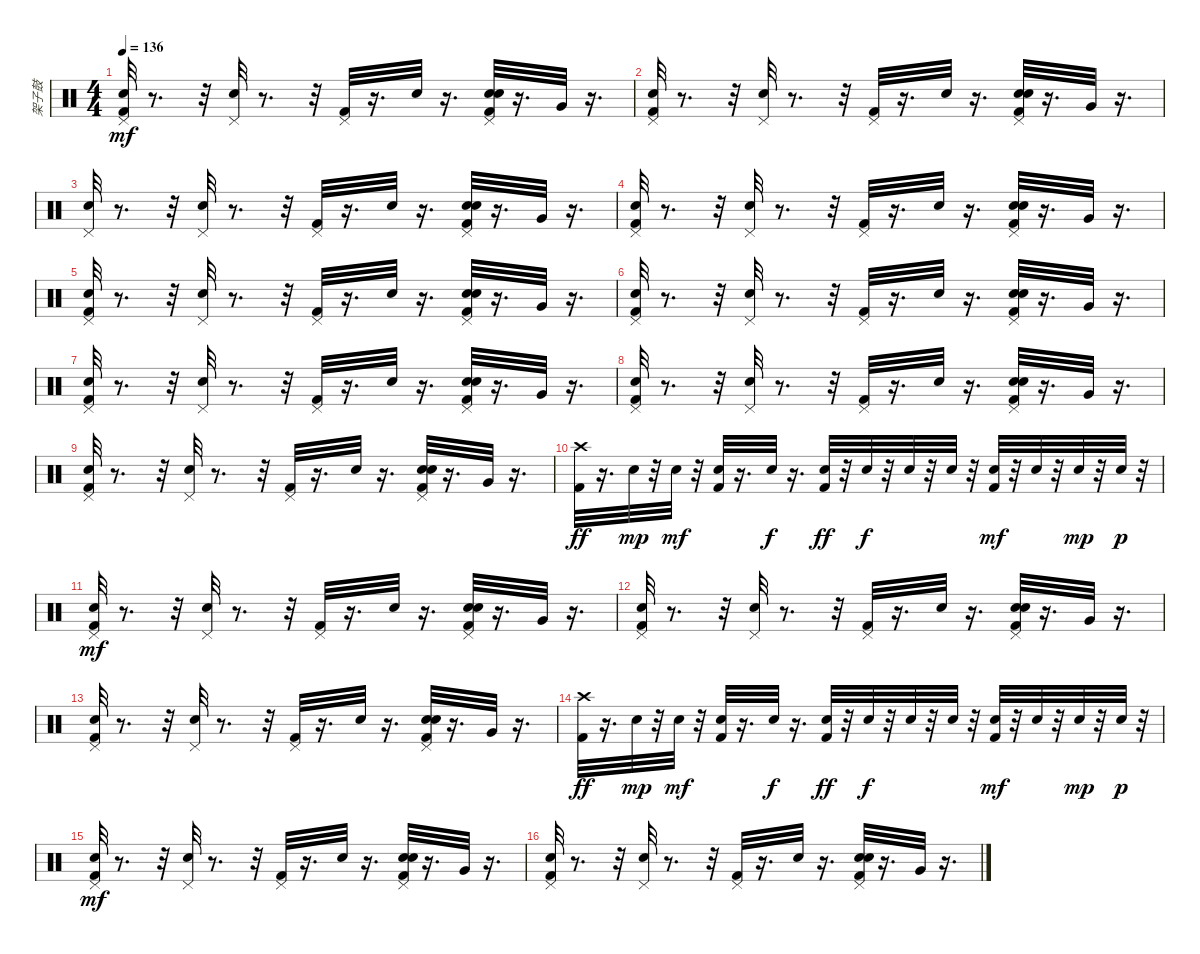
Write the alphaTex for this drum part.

\track ("架子鼓" "架子鼓") {instrument percussion}
\staff {score}
\articulation defaults
\ts (4 4)
\tempo 136
\clef neutral
\ks c
("Pedal Hi-Hat (hit)" "Kick (hit) 2" "Metronome (bell)").32{dy mf} r.8{d} r.32 ("Pedal Hi-Hat (hit)" "Metronome (bell)").32 r.8{d} r.32 ("Pedal Hi-Hat (hit)" "Kick (hit) 2").32 r.16{d} "Metronome (bell)".32 r.16{d} ("Pedal Hi-Hat (hit)" "Electric Snare (hit)" "Kick (hit) 2" "Metronome (bell)").32 r.16{d} "Very Low Tom (hit)".32 r.16{d} |
("Pedal Hi-Hat (hit)" "Kick (hit) 2" "Metronome (bell)").32 r.8{d} r.32 ("Pedal Hi-Hat (hit)" "Metronome (bell)").32 r.8{d} r.32 ("Pedal Hi-Hat (hit)" "Kick (hit) 2").32 r.16{d} "Metronome (bell)".32 r.16{d} ("Pedal Hi-Hat (hit)" "Electric Snare (hit)" "Kick (hit) 2" "Metronome (bell)").32 r.16{d} "Very Low Tom (hit)".32 r.16{d} |
("Pedal Hi-Hat (hit)" "Metronome (bell)").32 r.8{d} r.32 ("Pedal Hi-Hat (hit)" "Metronome (bell)").32 r.8{d} r.32 ("Pedal Hi-Hat (hit)" "Kick (hit) 2").32 r.16{d} "Metronome (bell)".32 r.16{d} ("Pedal Hi-Hat (hit)" "Electric Snare (hit)" "Kick (hit) 2" "Metronome (bell)").32 r.16{d} "Very Low Tom (hit)".32 r.16{d} |
("Pedal Hi-Hat (hit)" "Kick (hit) 2" "Metronome (bell)").32 r.8{d} r.32 ("Pedal Hi-Hat (hit)" "Metronome (bell)").32 r.8{d} r.32 ("Pedal Hi-Hat (hit)" "Kick (hit) 2").32 r.16{d} "Metronome (bell)".32 r.16{d} ("Pedal Hi-Hat (hit)" "Electric Snare (hit)" "Kick (hit) 2" "Metronome (bell)").32 r.16{d} "Very Low Tom (hit)".32 r.16{d} |
("Pedal Hi-Hat (hit)" "Kick (hit) 2" "Metronome (bell)").32 r.8{d} r.32 ("Pedal Hi-Hat (hit)" "Metronome (bell)").32 r.8{d} r.32 ("Pedal Hi-Hat (hit)" "Kick (hit) 2").32 r.16{d} "Metronome (bell)".32 r.16{d} ("Pedal Hi-Hat (hit)" "Electric Snare (hit)" "Kick (hit) 2" "Metronome (bell)").32 r.16{d} "Very Low Tom (hit)".32 r.16{d} |
("Pedal Hi-Hat (hit)" "Kick (hit) 2" "Metronome (bell)").32 r.8{d} r.32 ("Pedal Hi-Hat (hit)" "Metronome (bell)").32 r.8{d} r.32 ("Pedal Hi-Hat (hit)" "Kick (hit) 2").32 r.16{d} "Metronome (bell)".32 r.16{d} ("Pedal Hi-Hat (hit)" "Electric Snare (hit)" "Kick (hit) 2" "Metronome (bell)").32 r.16{d} "Very Low Tom (hit)".32 r.16{d} |
("Pedal Hi-Hat (hit)" "Kick (hit) 2" "Metronome (bell)").32 r.8{d} r.32 ("Pedal Hi-Hat (hit)" "Metronome (bell)").32 r.8{d} r.32 ("Pedal Hi-Hat (hit)" "Kick (hit) 2").32 r.16{d} "Metronome (bell)".32 r.16{d} ("Pedal Hi-Hat (hit)" "Electric Snare (hit)" "Kick (hit) 2" "Metronome (bell)").32 r.16{d} "Very Low Tom (hit)".32 r.16{d} |
("Pedal Hi-Hat (hit)" "Kick (hit) 2" "Metronome (bell)").32 r.8{d} r.32 ("Pedal Hi-Hat (hit)" "Metronome (bell)").32 r.8{d} r.32 ("Pedal Hi-Hat (hit)" "Kick (hit) 2").32 r.16{d} "Metronome (bell)".32 r.16{d} ("Pedal Hi-Hat (hit)" "Electric Snare (hit)" "Kick (hit) 2" "Metronome (bell)").32 r.16{d} "Very Low Tom (hit)".32 r.16{d} |
("Pedal Hi-Hat (hit)" "Kick (hit) 2" "Metronome (bell)").32 r.8{d} r.32 ("Pedal Hi-Hat (hit)" "Metronome (bell)").32 r.8{d} r.32 ("Pedal Hi-Hat (hit)" "Kick (hit) 2").32 r.16{d} "Metronome (bell)".32 r.16{d} ("Pedal Hi-Hat (hit)" "Electric Snare (hit)" "Kick (hit) 2" "Metronome (bell)").32 r.16{d} "Very Low Tom (hit)".32 r.16{d} |
("Crash high (hit)" "Kick (hit) 2").32{dy ff} r.16{d} "Metronome (bell)".32{dy mp} r.32 "Metronome (bell)".32{dy mf} r.32 ("Metronome (bell)" "Kick (hit) 2").32 r.16{d} "Metronome (bell)".32{dy f} r.16{d} ("Kick (hit) 2" "Metronome (bell)").32{dy ff} r.32 "Metronome (bell)".32{dy f} r.32 "Metronome (bell)".32 r.32 "Metronome (bell)".32 r.32 ("Kick (hit) 2" "Metronome (bell)").32{dy mf} r.32 "Metronome (bell)".32 r.32 "Metronome (bell)".32{dy mp} r.32 "Metronome (bell)".32{dy p} r.32 |
("Pedal Hi-Hat (hit)" "Kick (hit) 2" "Metronome (bell)").32{dy mf} r.8{d} r.32 ("Pedal Hi-Hat (hit)" "Metronome (bell)").32 r.8{d} r.32 ("Pedal Hi-Hat (hit)" "Kick (hit) 2").32 r.16{d} "Metronome (bell)".32 r.16{d} ("Pedal Hi-Hat (hit)" "Electric Snare (hit)" "Kick (hit) 2" "Metronome (bell)").32 r.16{d} "Very Low Tom (hit)".32 r.16{d} |
("Pedal Hi-Hat (hit)" "Kick (hit) 2" "Metronome (bell)").32 r.8{d} r.32 ("Pedal Hi-Hat (hit)" "Metronome (bell)").32 r.8{d} r.32 ("Pedal Hi-Hat (hit)" "Kick (hit) 2").32 r.16{d} "Metronome (bell)".32 r.16{d} ("Pedal Hi-Hat (hit)" "Electric Snare (hit)" "Kick (hit) 2" "Metronome (bell)").32 r.16{d} "Very Low Tom (hit)".32 r.16{d} |
("Pedal Hi-Hat (hit)" "Kick (hit) 2" "Metronome (bell)").32 r.8{d} r.32 ("Pedal Hi-Hat (hit)" "Metronome (bell)").32 r.8{d} r.32 ("Pedal Hi-Hat (hit)" "Kick (hit) 2").32 r.16{d} "Metronome (bell)".32 r.16{d} ("Pedal Hi-Hat (hit)" "Electric Snare (hit)" "Kick (hit) 2" "Metronome (bell)").32 r.16{d} "Very Low Tom (hit)".32 r.16{d} |
("Crash high (hit)" "Kick (hit) 2").32{dy ff} r.16{d} "Metronome (bell)".32{dy mp} r.32 "Metronome (bell)".32{dy mf} r.32 ("Metronome (bell)" "Kick (hit) 2").32 r.16{d} "Metronome (bell)".32{dy f} r.16{d} ("Kick (hit) 2" "Metronome (bell)").32{dy ff} r.32 "Metronome (bell)".32{dy f} r.32 "Metronome (bell)".32 r.32 "Metronome (bell)".32 r.32 ("Kick (hit) 2" "Metronome (bell)").32{dy mf} r.32 "Metronome (bell)".32 r.32 "Metronome (bell)".32{dy mp} r.32 "Metronome (bell)".32{dy p} r.32 |
("Pedal Hi-Hat (hit)" "Kick (hit) 2" "Metronome (bell)").32{dy mf} r.8{d} r.32 ("Pedal Hi-Hat (hit)" "Metronome (bell)").32 r.8{d} r.32 ("Pedal Hi-Hat (hit)" "Kick (hit) 2").32 r.16{d} "Metronome (bell)".32 r.16{d} ("Pedal Hi-Hat (hit)" "Electric Snare (hit)" "Kick (hit) 2" "Metronome (bell)").32 r.16{d} "Very Low Tom (hit)".32 r.16{d} |
("Pedal Hi-Hat (hit)" "Kick (hit) 2" "Metronome (bell)").32 r.8{d} r.32 ("Pedal Hi-Hat (hit)" "Metronome (bell)").32 r.8{d} r.32 ("Pedal Hi-Hat (hit)" "Kick (hit) 2").32 r.16{d} "Metronome (bell)".32 r.16{d} ("Pedal Hi-Hat (hit)" "Electric Snare (hit)" "Kick (hit) 2" "Metronome (bell)").32 r.16{d} "Very Low Tom (hit)".32 r.16{d}
